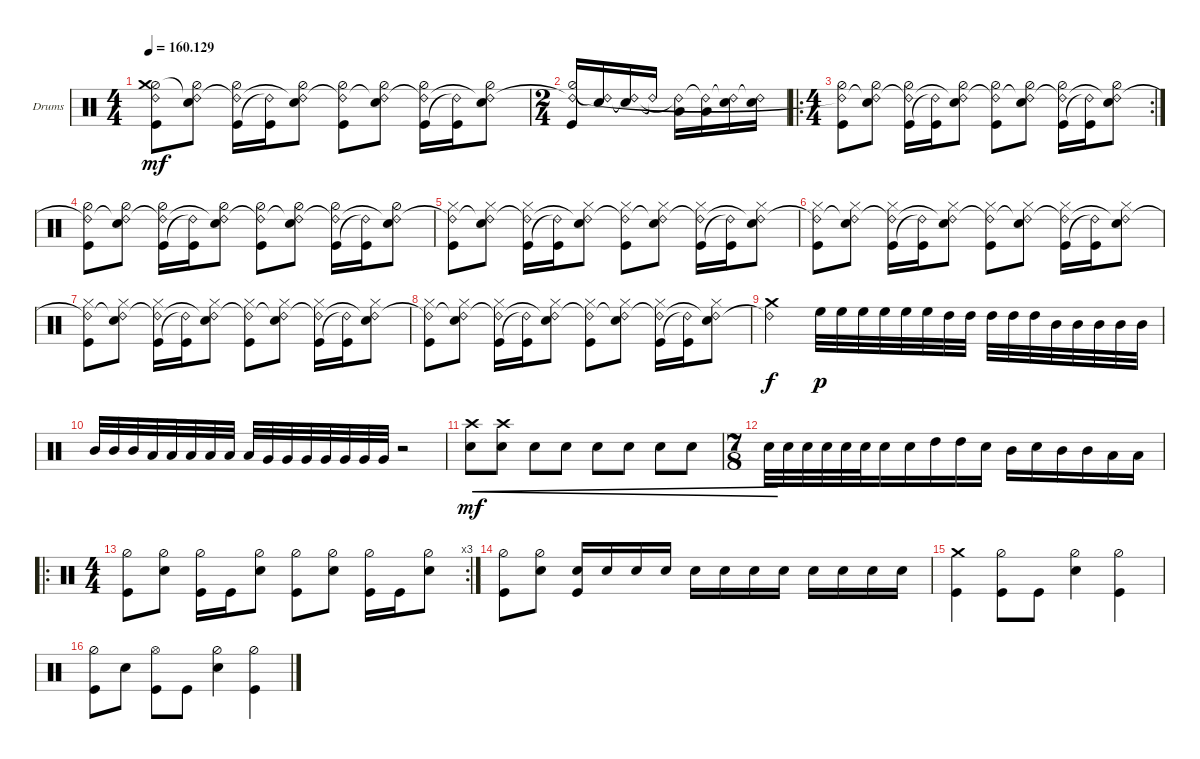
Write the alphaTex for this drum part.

\defaultSystemsLayout 4
\bracketExtendMode groupsimilarinstruments
\firstSystemTrackNameOrientation horizontal
\otherSystemsTrackNameOrientation horizontal
\track ("Drumkit" "Drums") {instrument percussion}
\staff {score}
\articulation defaults
\ts (4 4)
\tempo
160.129
\accidentals auto
\clef neutral
\ottava regular
\simile none
\ks c
("Kick (hit)" "Hi-Hat (half)" "Crash medium (hit)" "Ride (bell) 2"{t}).8{dy mf} ("Hi-Hat (half)" "Snare (hit) 2" "Ride (bell) 2"{t}).8 ("Hi-Hat (half)" "Kick (hit)" "Ride (bell) 2"{t}).16 ("Kick (hit)" "Ride (bell) 2"{t}).16 ("Hi-Hat (half)" "Snare (hit) 2" "Ride (bell) 2"{t}).8 ("Kick (hit)" "Hi-Hat (half)" "Ride (bell) 2"{t}).8 ("Hi-Hat (half)" "Snare (hit) 2" "Ride (bell) 2"{t}).8 ("Hi-Hat (half)" "Kick (hit)" "Ride (bell) 2"{t}).16 ("Kick (hit)" "Ride (bell) 2"{t}).16 ("Hi-Hat (half)" "Snare (hit) 2" "Ride (bell) 2"{t}).8 |
\ts (2 4)
("Kick (hit)" "Hi-Hat (half)" "Ride (bell) 2"{t}).16 ("Snare (hit) 2" "Ride (bell) 2"{t}).16 ("Snare (hit) 2" "Ride (bell) 2"{t}).16 "Ride (bell) 2"{t}.16 ("Low Tom (hit)" "Ride (bell) 2"{t}).16 ("Low Tom (hit)" "Ride (bell) 2"{t}).16 ("Snare (hit) 2" "Ride (bell) 2"{t}).16 ("Snare (hit) 2" "Ride (bell) 2"{t}).16 |
\ro
\rc 2
\ts (4 4)
("Kick (hit)" "Hi-Hat (half)" "Ride (bell) 2"{t}).8 ("Hi-Hat (half)" "Snare (hit) 2" "Ride (bell) 2"{t}).8 ("Hi-Hat (half)" "Kick (hit)" "Ride (bell) 2"{t}).16 ("Kick (hit)" "Ride (bell) 2"{t}).16 ("Hi-Hat (half)" "Snare (hit) 2" "Ride (bell) 2"{t}).8 ("Kick (hit)" "Hi-Hat (half)" "Ride (bell) 2"{t}).8 ("Hi-Hat (half)" "Snare (hit) 2" "Ride (bell) 2"{t}).8 ("Hi-Hat (half)" "Kick (hit)" "Ride (bell) 2"{t}).16 ("Kick (hit)" "Ride (bell) 2"{t}).16 ("Hi-Hat (half)" "Snare (hit) 2" "Ride (bell) 2"{t}).8 |
("Kick (hit)" "Hi-Hat (half)" "Ride (bell) 2"{t}).8 ("Hi-Hat (half)" "Snare (hit) 2" "Ride (bell) 2"{t}).8 ("Hi-Hat (half)" "Kick (hit)" "Ride (bell) 2"{t}).16 ("Kick (hit)" "Ride (bell) 2"{t}).16 ("Hi-Hat (half)" "Snare (hit) 2" "Ride (bell) 2"{t}).8 ("Kick (hit)" "Hi-Hat (half)" "Ride (bell) 2"{t}).8 ("Hi-Hat (half)" "Snare (hit) 2" "Ride (bell) 2"{t}).8 ("Hi-Hat (half)" "Kick (hit)" "Ride (bell) 2"{t}).16 ("Kick (hit)" "Ride (bell) 2"{t}).16 ("Hi-Hat (half)" "Snare (hit) 2" "Ride (bell) 2"{t}).8 |
("Kick (hit)" "Hi-Hat (closed)" "Ride (bell) 2"{t}).8 ("Hi-Hat (closed)" "Snare (hit) 2" "Ride (bell) 2"{t}).8 ("Hi-Hat (closed)" "Kick (hit)" "Ride (bell) 2"{t}).16 ("Kick (hit)" "Ride (bell) 2"{t}).16 ("Hi-Hat (closed)" "Snare (hit) 2" "Ride (bell) 2"{t}).8 ("Kick (hit)" "Hi-Hat (closed)" "Ride (bell) 2"{t}).8 ("Hi-Hat (closed)" "Snare (hit) 2" "Ride (bell) 2"{t}).8 ("Hi-Hat (closed)" "Kick (hit)" "Ride (bell) 2"{t}).16 ("Kick (hit)" "Ride (bell) 2"{t}).16 ("Hi-Hat (closed)" "Snare (hit) 2" "Ride (bell) 2"{t}).8 |
("Kick (hit)" "Hi-Hat (closed)" "Ride (bell) 2"{t}).8 ("Hi-Hat (closed)" "Snare (hit) 2" "Ride (bell) 2"{t}).8 ("Hi-Hat (closed)" "Kick (hit)" "Ride (bell) 2"{t}).16 ("Kick (hit)" "Ride (bell) 2"{t}).16 ("Hi-Hat (closed)" "Snare (hit) 2" "Ride (bell) 2"{t}).8 ("Kick (hit)" "Hi-Hat (closed)" "Ride (bell) 2"{t}).8 ("Hi-Hat (closed)" "Snare (hit) 2" "Ride (bell) 2"{t}).8 ("Hi-Hat (closed)" "Kick (hit)" "Ride (bell) 2"{t}).16 ("Kick (hit)" "Ride (bell) 2"{t}).16 ("Hi-Hat (closed)" "Snare (hit) 2" "Ride (bell) 2"{t}).8 |
("Kick (hit)" "Hi-Hat (closed)" "Ride (bell) 2"{t}).8 ("Hi-Hat (closed)" "Snare (hit) 2" "Ride (bell) 2"{t}).8 ("Hi-Hat (closed)" "Kick (hit)" "Ride (bell) 2"{t}).16 ("Kick (hit)" "Ride (bell) 2"{t}).16 ("Hi-Hat (closed)" "Snare (hit) 2" "Ride (bell) 2"{t}).8 ("Kick (hit)" "Hi-Hat (closed)" "Ride (bell) 2"{t}).8 ("Hi-Hat (closed)" "Snare (hit) 2" "Ride (bell) 2"{t}).8 ("Hi-Hat (closed)" "Kick (hit)" "Ride (bell) 2"{t}).16 ("Kick (hit)" "Ride (bell) 2"{t}).16 ("Hi-Hat (closed)" "Snare (hit) 2" "Ride (bell) 2"{t}).8 |
("Kick (hit)" "Hi-Hat (closed)" "Ride (bell) 2"{t}).8 ("Hi-Hat (closed)" "Snare (hit) 2" "Ride (bell) 2"{t}).8 ("Hi-Hat (closed)" "Kick (hit)" "Ride (bell) 2"{t}).16 ("Kick (hit)" "Ride (bell) 2"{t}).16 ("Hi-Hat (closed)" "Snare (hit) 2" "Ride (bell) 2"{t}).8 ("Kick (hit)" "Hi-Hat (closed)" "Ride (bell) 2"{t}).8 ("Hi-Hat (closed)" "Snare (hit) 2" "Ride (bell) 2"{t}).8 ("Hi-Hat (closed)" "Kick (hit)" "Ride (bell) 2"{t}).16 ("Kick (hit)" "Ride (bell) 2"{t}).16 ("Hi-Hat (closed)" "Snare (hit) 2" "Ride (bell) 2"{t}).8 |
("Crash medium (hit)" "Ride (bell) 2"{t}).2{dy f} "High Floor Tom (hit)".32{dy p} "High Floor Tom (hit)".32 "High Floor Tom (hit)".32 "High Floor Tom (hit)".32 "High Floor Tom (hit)".32 "High Floor Tom (hit)".32 "High Tom (hit)".32 "High Tom (hit)".32 "High Tom (hit)".32 "High Tom (hit)".32 "High Tom (hit)".32 "Mid Tom (hit)".32 "Mid Tom (hit)".32 "Mid Tom (hit)".32 "Mid Tom (hit)".32 "Mid Tom (hit)".32 |
"Mid Tom (hit)".32 "Mid Tom (hit)".32 "Mid Tom (hit)".32 "Low Tom (hit)".32 "Low Tom (hit)".32 "Low Tom (hit)".32 "Low Tom (hit)".32 "Low Tom (hit)".32 "Low Tom (hit)".32 "Very Low Tom (hit)".32 "Very Low Tom (hit)".32 "Very Low Tom (hit)".32 "Very Low Tom (hit)".32 "Very Low Tom (hit)".32 "Very Low Tom (hit)".32 "Very Low Tom (hit)".32 r.2 |
("Snare (hit) 2" "Crash high (hit)").8{cre dy mf} ("Snare (hit) 2" "Crash high (hit)").8{cre} "Snare (hit) 2".8{cre} "Snare (hit) 2".8{cre} "Snare (hit) 2".8{cre} "Snare (hit) 2".8{cre} "Snare (hit) 2".8{cre} "Snare (hit) 2".8{cre} |
\ts (7 8)
"Snare (hit) 2".32{cre} "Snare (hit) 2".32 "Snare (hit) 2".32 "Snare (hit) 2".32 "Snare (hit) 2".32 "Snare (hit) 2".32 "Snare (hit) 2".16 "Snare (hit) 2".16 "High Tom (hit)".16 "High Tom (hit)".16 "Snare (hit) 2".16 "Mid Tom (hit)".16 "Snare (hit) 2".16 "Mid Tom (hit)".16 "Mid Tom (hit)".16 "Low Tom (hit)".16 "Low Tom (hit)".16 |
\ro
\rc 3
\ts (4 4)
("Kick (hit)" "Hi-Hat (half)").8 ("Hi-Hat (half)" "Snare (hit) 2").8 ("Hi-Hat (half)" "Kick (hit)").16 "Kick (hit)".16 ("Hi-Hat (half)" "Snare (hit) 2").8 ("Kick (hit)" "Hi-Hat (half)").8 ("Hi-Hat (half)" "Snare (hit) 2").8 ("Hi-Hat (half)" "Kick (hit)").16 "Kick (hit)".16 ("Hi-Hat (half)" "Snare (hit) 2").8 |
("Kick (hit)" "Hi-Hat (half)").8 ("Hi-Hat (half)" "Snare (hit) 2").8 ("Kick (hit)" "Snare (hit) 2").16 "Snare (hit) 2".16 "Snare (hit) 2".16 "Snare (hit) 2".16 "Snare (hit) 2".16 "Snare (hit) 2".16 "Snare (hit) 2".16 "Snare (hit) 2".16 "Snare (hit) 2".16 "Snare (hit) 2".16 "Snare (hit) 2".16 "Snare (hit) 2".16 |
("Kick (hit)" "Crash medium (hit)").4 ("Kick (hit)" "Hi-Hat (half)").8 "Kick (hit)".8 ("Snare (hit) 2" "Hi-Hat (half)").4 ("Kick (hit)" "Hi-Hat (half)").4 |
("Hi-Hat (half)" "Kick (hit)").8 "Snare (hit) 2".8 ("Kick (hit)" "Hi-Hat (open)").8 "Kick (hit)".8 ("Snare (hit) 2" "Hi-Hat (half)").4 ("Hi-Hat (half)" "Kick (hit)").4
